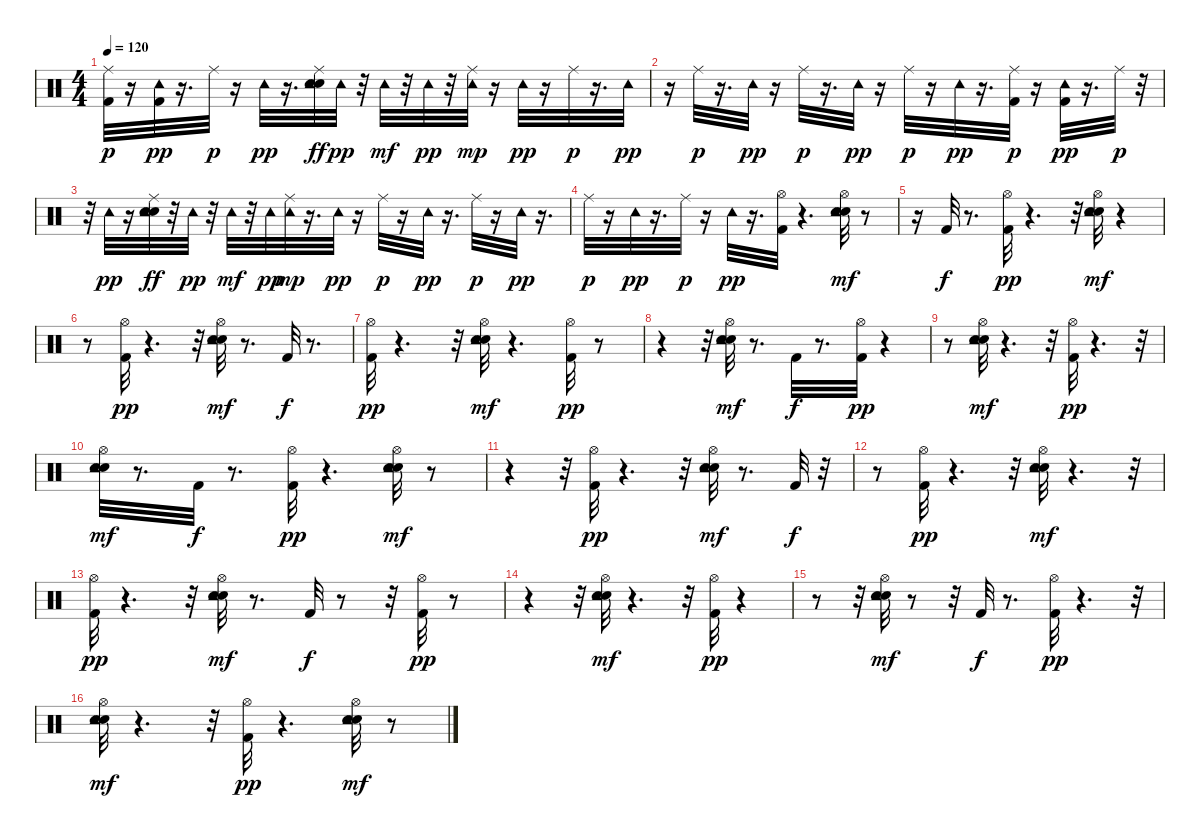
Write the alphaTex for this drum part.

\track "" {instrument percussion}
\staff {score}
\articulation defaults
\ts (4 4)
\tempo 120
\clef neutral
\ks c
("Kick (hit) 2" "Ride (middle)").32{dy p} r.16 ("Kick (hit) 2" "Tambourine (hit)").32{dy pp} r.16{d} "Ride (middle)".32{dy p} r.16 "Tambourine (hit)".32{dy pp} r.16{d} ("Snare (hit) 2" "Electric Snare (hit)" "Ride (middle)" "Tambourine (hit)").32{dy ff} "Tambourine (hit)".32{dy pp} r.32 "Tambourine (hit)".32{dy mf} r.32 "Tambourine (hit)".32{dy pp} r.32 ("Ride (middle)" "Tambourine (hit)").32{dy mp} r.16 "Tambourine (hit)".32{dy pp} r.16 "Ride (middle)".32{dy p} r.16{d} "Tambourine (hit)".32{dy pp} |
r.16 "Ride (middle)".32{dy p} r.16{d} "Tambourine (hit)".32{dy pp} r.16 "Ride (middle)".32{dy p} r.16{d} "Tambourine (hit)".32{dy pp} r.16 "Ride (middle)".32{dy p} r.16 "Tambourine (hit)".32{dy pp} r.16{d} ("Kick (hit) 2" "Ride (middle)").32{dy p} r.16 ("Kick (hit) 2" "Tambourine (hit)").32{dy pp} r.16{d} "Ride (middle)".32{dy p} r.32 |
r.32 "Tambourine (hit)".32{dy pp} r.16 ("Snare (hit) 2" "Electric Snare (hit)" "Ride (middle)" "Tambourine (hit)").32{dy ff} r.32 "Tambourine (hit)".32{dy pp} r.32 "Tambourine (hit)".32{dy mf} r.32 "Tambourine (hit)".32{dy pp} ("Ride (middle)" "Tambourine (hit)").32{dy mp} r.16{d} "Tambourine (hit)".32{dy pp} r.16 "Ride (middle)".32{dy p} r.16 "Tambourine (hit)".32{dy pp} r.16{d} "Ride (middle)".32{dy p} r.16 "Tambourine (hit)".32{dy pp} r.16{d} |
"Ride (middle)".32{dy p} r.16 "Tambourine (hit)".32{dy pp} r.16{d} "Ride (middle)".32{dy p} r.16 "Tambourine (hit)".32{dy pp} r.16{d} ("Kick (hit) 2" "Hi-Hat (open)").32 r.4{d} ("Snare (hit) 2" "Electric Snare (hit)" "Hi-Hat (open)" "Tambourine (hit)").32{dy mf} r.8 |
r.16 "Kick (hit) 2".32{dy f} r.8{d} ("Kick (hit) 2" "Hi-Hat (open)").32{dy pp} r.4{d} r.32 ("Snare (hit) 2" "Electric Snare (hit)" "Hi-Hat (open)" "Tambourine (hit)").32{dy mf} r.4 |
r.8 ("Kick (hit) 2" "Hi-Hat (open)").32{dy pp} r.4{d} r.32 ("Snare (hit) 2" "Electric Snare (hit)" "Hi-Hat (open)" "Tambourine (hit)").32{dy mf} r.8{d} "Kick (hit) 2".32{dy f} r.8{d} |
("Kick (hit) 2" "Hi-Hat (open)").32{dy pp} r.4{d} r.32 ("Snare (hit) 2" "Electric Snare (hit)" "Hi-Hat (open)" "Tambourine (hit)").32{dy mf} r.4{d} ("Kick (hit) 2" "Hi-Hat (open)").32{dy pp} r.8 |
r.4 r.32 ("Snare (hit) 2" "Electric Snare (hit)" "Hi-Hat (open)" "Tambourine (hit)").32{dy mf} r.8{d} "Kick (hit) 2".32{dy f} r.8{d} ("Kick (hit) 2" "Hi-Hat (open)").32{dy pp} r.4 |
r.8 ("Snare (hit) 2" "Electric Snare (hit)" "Hi-Hat (open)" "Tambourine (hit)").32{dy mf} r.4{d} r.32 ("Kick (hit) 2" "Hi-Hat (open)").32{dy pp} r.4{d} r.32 |
("Snare (hit) 2" "Electric Snare (hit)" "Hi-Hat (open)" "Tambourine (hit)").32{dy mf} r.8{d} "Kick (hit) 2".32{dy f} r.8{d} ("Kick (hit) 2" "Hi-Hat (open)").32{dy pp} r.4{d} ("Snare (hit) 2" "Electric Snare (hit)" "Hi-Hat (open)" "Tambourine (hit)").32{dy mf} r.8 |
r.4 r.32 ("Kick (hit) 2" "Hi-Hat (open)").32{dy pp} r.4{d} r.32 ("Snare (hit) 2" "Electric Snare (hit)" "Hi-Hat (open)" "Tambourine (hit)").32{dy mf} r.8{d} "Kick (hit) 2".32{dy f} r.32 |
r.8 ("Kick (hit) 2" "Hi-Hat (open)").32{dy pp} r.4{d} r.32 ("Snare (hit) 2" "Electric Snare (hit)" "Hi-Hat (open)" "Tambourine (hit)").32{dy mf} r.4{d} r.32 |
("Kick (hit) 2" "Hi-Hat (open)").32{dy pp} r.4{d} r.32 ("Snare (hit) 2" "Electric Snare (hit)" "Hi-Hat (open)" "Tambourine (hit)").32{dy mf} r.8{d} "Kick (hit) 2".32{dy f} r.8 r.32 ("Kick (hit) 2" "Hi-Hat (open)").32{dy pp} r.8 |
r.4 r.32 ("Snare (hit) 2" "Electric Snare (hit)" "Hi-Hat (open)" "Tambourine (hit)").32{dy mf} r.4{d} r.32 ("Kick (hit) 2" "Hi-Hat (open)").32{dy pp} r.4 |
r.8 r.32 ("Snare (hit) 2" "Electric Snare (hit)" "Hi-Hat (open)" "Tambourine (hit)").32{dy mf} r.8 r.32 "Kick (hit) 2".32{dy f} r.8{d} ("Kick (hit) 2" "Hi-Hat (open)").32{dy pp} r.4{d} r.32 |
("Snare (hit) 2" "Electric Snare (hit)" "Hi-Hat (open)" "Tambourine (hit)").32{dy mf} r.4{d} r.32 ("Kick (hit) 2" "Hi-Hat (open)").32{dy pp} r.4{d} ("Snare (hit) 2" "Electric Snare (hit)" "Hi-Hat (open)" "Tambourine (hit)").32{dy mf} r.8
